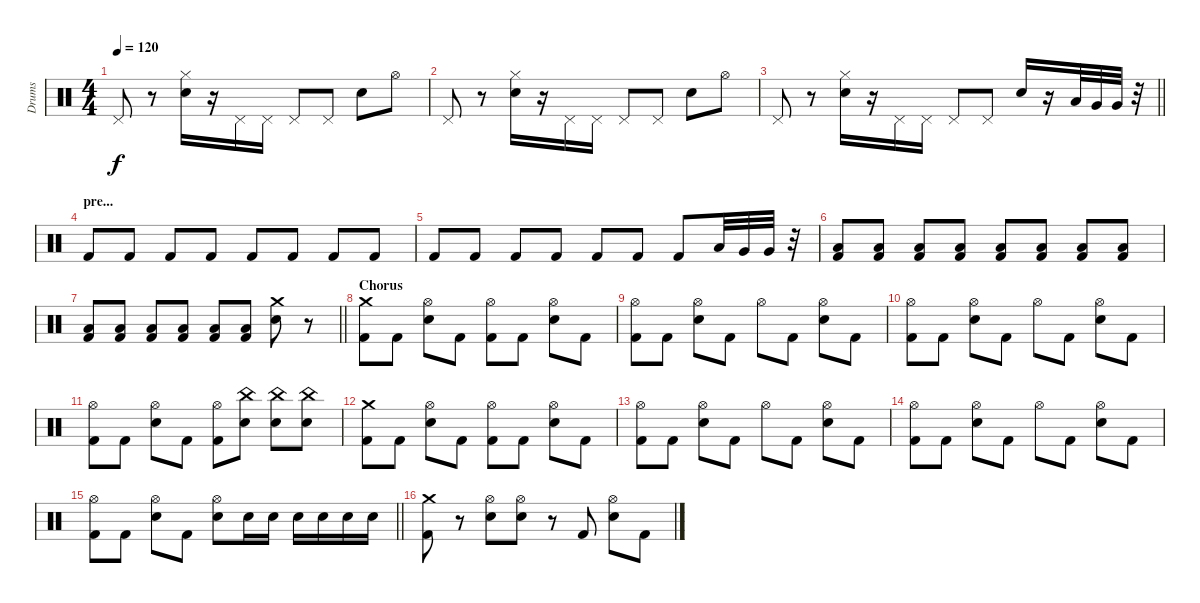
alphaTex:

\track ("Drums" "Drums") {instrument percussion}
\staff {score}
\articulation defaults
\ts (4 4)
\tempo 120
\clef neutral
\ks c "Pedal Hi-Hat (hit)".8{dy f}
r.8 ("Hi-Hat (closed)" "Electric Snare (hit)").16 r.16 "Pedal Hi-Hat (hit)".16 "Pedal Hi-Hat (hit)".16 "Pedal Hi-Hat (hit)".8 "Pedal Hi-Hat (hit)".8 "Electric Snare (hit)".8 "Hi-Hat (open)".8 |
"Pedal Hi-Hat (hit)".8 r.8 ("Hi-Hat (closed)" "Electric Snare (hit)").16 r.16 "Pedal Hi-Hat (hit)".16 "Pedal Hi-Hat (hit)".16 "Pedal Hi-Hat (hit)".8 "Pedal Hi-Hat (hit)".8 "Electric Snare (hit)".8 "Hi-Hat (open)".8 |
\barLineRight lightlight "Pedal Hi-Hat (hit)".8
r.8 ("Hi-Hat (closed)" "Electric Snare (hit)").16 r.16 "Pedal Hi-Hat (hit)".16 "Pedal Hi-Hat (hit)".16 "Pedal Hi-Hat (hit)".8 "Pedal Hi-Hat (hit)".8 "Electric Snare (hit)".16 r.16 "Low Tom (hit)".32{balance 16} "Very Low Tom (hit)".32{volume 16 balance 0} "Very Low Tom (hit)".32 r.32 |
\section ("" "pre...")
"Kick (hit) 2".8{balance 8} "Kick (hit) 2".8 "Kick (hit) 2".8 "Kick (hit) 2".8 "Kick (hit) 2".8 "Kick (hit) 2".8 "Kick (hit) 2".8 "Kick (hit) 2".8 |
"Kick (hit) 2".8 "Kick (hit) 2".8 "Kick (hit) 2".8 "Kick (hit) 2".8 "Kick (hit) 2".8 "Kick (hit) 2".8 "Kick (hit) 2".8 "Low Tom (hit)".32 "Very Low Tom (hit)".32 "Very Low Tom (hit)".32 r.32 |
("Low Floor Tom (hit)" "Kick (hit) 2").8 ("Low Floor Tom (hit)" "Kick (hit) 2").8 ("Low Floor Tom (hit)" "Kick (hit) 2").8 ("Low Floor Tom (hit)" "Kick (hit) 2").8 ("Low Floor Tom (hit)" "Kick (hit) 2").8 ("Low Floor Tom (hit)" "Kick (hit) 2").8 ("Low Floor Tom (hit)" "Kick (hit) 2").8 ("Low Floor Tom (hit)" "Kick (hit) 2").8 |
\barLineRight lightlight
("Low Floor Tom (hit)" "Kick (hit) 2").8 ("Low Floor Tom (hit)" "Kick (hit) 2").8 ("Low Floor Tom (hit)" "Kick (hit) 2").8 ("Low Floor Tom (hit)" "Kick (hit) 2").8 ("Low Floor Tom (hit)" "Kick (hit) 2").8 ("Low Floor Tom (hit)" "Kick (hit) 2").8 ("Crash medium (hit)" "Electric Snare (hit)").8 r.8 |
\section ("" "Chorus")
("Crash medium (hit)" "Kick (hit) 2").8 "Kick (hit) 2".8 ("Hi-Hat (open)" "Electric Snare (hit)").8 "Kick (hit) 2".8 ("Hi-Hat (open)" "Kick (hit) 2").8 "Kick (hit) 2".8 ("Hi-Hat (open)" "Electric Snare (hit)").8 "Kick (hit) 2".8 |
("Hi-Hat (open)" "Kick (hit) 2").8 "Kick (hit) 2".8 ("Hi-Hat (open)" "Electric Snare (hit)").8 "Kick (hit) 2".8 "Hi-Hat (open)".8 "Kick (hit) 2".8 ("Hi-Hat (open)" "Electric Snare (hit)").8 "Kick (hit) 2".8 |
("Hi-Hat (open)" "Kick (hit) 2").8 "Kick (hit) 2".8 ("Hi-Hat (open)" "Electric Snare (hit)").8 "Kick (hit) 2".8 "Hi-Hat (open)".8 "Kick (hit) 2".8 ("Hi-Hat (open)" "Electric Snare (hit)").8 "Kick (hit) 2".8 |
("Hi-Hat (open)" "Kick (hit) 2").8 "Kick (hit) 2".8 ("Hi-Hat (open)" "Electric Snare (hit)").8 "Kick (hit) 2".8 ("Hi-Hat (open)" "Kick (hit) 2").8 ("China (hit)" "Electric Snare (hit)").8 ("China (hit)" "Electric Snare (hit)").8 ("China (hit)" "Electric Snare (hit)").8 |
("Crash medium (hit)" "Kick (hit) 2").8 "Kick (hit) 2".8 ("Hi-Hat (open)" "Electric Snare (hit)").8 "Kick (hit) 2".8 ("Hi-Hat (open)" "Kick (hit) 2").8 "Kick (hit) 2".8 ("Hi-Hat (open)" "Electric Snare (hit)").8 "Kick (hit) 2".8 |
("Hi-Hat (open)" "Kick (hit) 2").8 "Kick (hit) 2".8 ("Hi-Hat (open)" "Electric Snare (hit)").8 "Kick (hit) 2".8 "Hi-Hat (open)".8 "Kick (hit) 2".8 ("Hi-Hat (open)" "Electric Snare (hit)").8 "Kick (hit) 2".8 |
("Hi-Hat (open)" "Kick (hit) 2").8 "Kick (hit) 2".8 ("Hi-Hat (open)" "Electric Snare (hit)").8 "Kick (hit) 2".8 "Hi-Hat (open)".8 "Kick (hit) 2".8 ("Hi-Hat (open)" "Electric Snare (hit)").8 "Kick (hit) 2".8 |
\barLineRight lightlight
("Hi-Hat (open)" "Kick (hit) 2").8 "Kick (hit) 2".8 ("Hi-Hat (open)" "Electric Snare (hit)").8 "Kick (hit) 2".8 ("Hi-Hat (open)" "Electric Snare (hit)").8 "Electric Snare (hit)".16 "Electric Snare (hit)".16 "Electric Snare (hit)".16 "Electric Snare (hit)".16 "Electric Snare (hit)".16 "Electric Snare (hit)".16 |
\section ("" "")
("Crash medium (hit)" "Kick (hit) 2").8 r.8 ("Hi-Hat (open)" "Electric Snare (hit)").8 ("Hi-Hat (open)" "Electric Snare (hit)").8 r.8 "Kick (hit) 2".8 ("Hi-Hat (open)" "Electric Snare (hit)").8 "Kick (hit) 2".8
